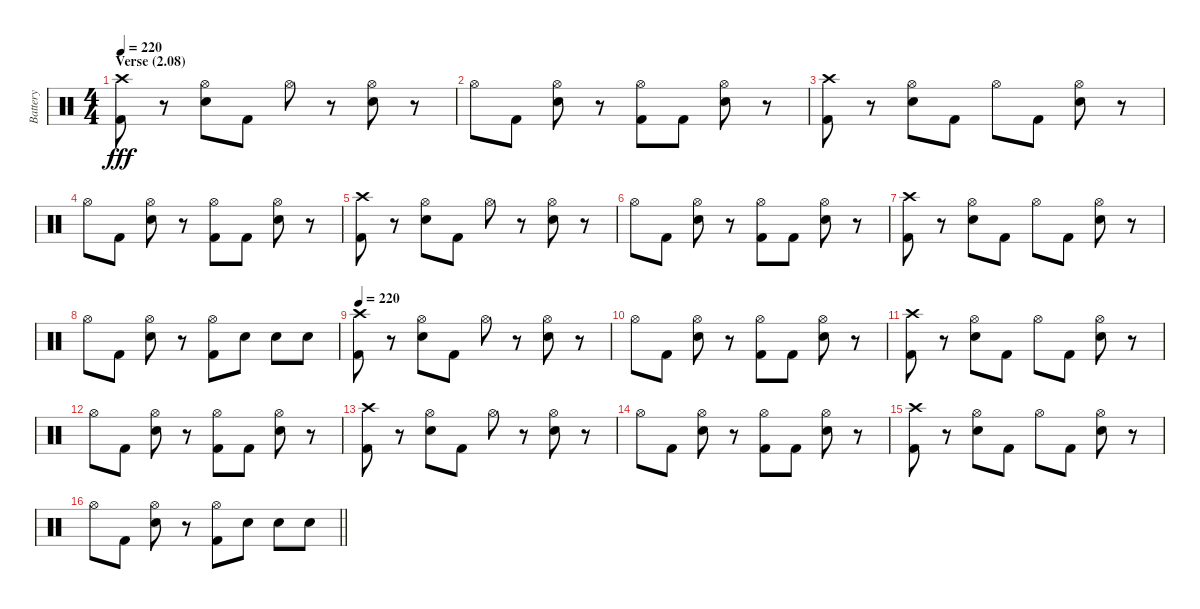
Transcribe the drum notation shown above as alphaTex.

\track ("Battery" "Battery") {instrument percussion}
\staff {score}
\articulation defaults
\ts (4 4)
\section ("" "Verse (2.08)")
\tempo 220
\clef neutral
\ks c
("Crash high (hit)" "Kick (hit) 2").8{dy fff} r.8 ("Hi-Hat (open)" "Electric Snare (hit)").8 "Kick (hit) 2".8 "Hi-Hat (open)".8 r.8 ("Hi-Hat (open)" "Electric Snare (hit)").8 r.8 |
"Hi-Hat (open)".8 "Kick (hit) 2".8 ("Hi-Hat (open)" "Electric Snare (hit)").8 r.8 ("Hi-Hat (open)" "Kick (hit) 2").8 "Kick (hit) 2".8 ("Hi-Hat (open)" "Electric Snare (hit)").8 r.8 |
("Crash high (hit)" "Kick (hit) 2").8 r.8 ("Hi-Hat (open)" "Electric Snare (hit)").8 "Kick (hit) 2".8 "Hi-Hat (open)".8 "Kick (hit) 2".8 ("Hi-Hat (open)" "Electric Snare (hit)").8 r.8 |
"Hi-Hat (open)".8 "Kick (hit) 2".8 ("Hi-Hat (open)" "Electric Snare (hit)").8 r.8 ("Hi-Hat (open)" "Kick (hit) 2").8 "Kick (hit) 2".8 ("Hi-Hat (open)" "Electric Snare (hit)").8 r.8 |
("Crash high (hit)" "Kick (hit) 2").8 r.8 ("Hi-Hat (open)" "Electric Snare (hit)").8 "Kick (hit) 2".8 "Hi-Hat (open)".8 r.8 ("Hi-Hat (open)" "Electric Snare (hit)").8 r.8 |
"Hi-Hat (open)".8 "Kick (hit) 2".8 ("Hi-Hat (open)" "Electric Snare (hit)").8 r.8 ("Hi-Hat (open)" "Kick (hit) 2").8 "Kick (hit) 2".8 ("Hi-Hat (open)" "Electric Snare (hit)").8 r.8 |
("Crash high (hit)" "Kick (hit) 2").8 r.8 ("Hi-Hat (open)" "Electric Snare (hit)").8 "Kick (hit) 2".8 "Hi-Hat (open)".8 "Kick (hit) 2".8 ("Hi-Hat (open)" "Electric Snare (hit)").8 r.8 |
"Hi-Hat (open)".8 "Kick (hit) 2".8 ("Hi-Hat (open)" "Electric Snare (hit)").8 r.8 ("Hi-Hat (open)" "Kick (hit) 2").8 "Electric Snare (hit)".8 "Electric Snare (hit)".8 "Electric Snare (hit)".8 |
\tempo 220
("Crash high (hit)" "Kick (hit) 2").8 r.8 ("Hi-Hat (open)" "Electric Snare (hit)").8 "Kick (hit) 2".8 "Hi-Hat (open)".8 r.8 ("Hi-Hat (open)" "Electric Snare (hit)").8 r.8 |
"Hi-Hat (open)".8 "Kick (hit) 2".8 ("Hi-Hat (open)" "Electric Snare (hit)").8 r.8 ("Hi-Hat (open)" "Kick (hit) 2").8 "Kick (hit) 2".8 ("Hi-Hat (open)" "Electric Snare (hit)").8 r.8 |
("Crash high (hit)" "Kick (hit) 2").8 r.8 ("Hi-Hat (open)" "Electric Snare (hit)").8 "Kick (hit) 2".8 "Hi-Hat (open)".8 "Kick (hit) 2".8 ("Hi-Hat (open)" "Electric Snare (hit)").8 r.8 |
"Hi-Hat (open)".8 "Kick (hit) 2".8 ("Hi-Hat (open)" "Electric Snare (hit)").8 r.8 ("Hi-Hat (open)" "Kick (hit) 2").8 "Kick (hit) 2".8 ("Hi-Hat (open)" "Electric Snare (hit)").8 r.8 |
("Crash high (hit)" "Kick (hit) 2").8 r.8 ("Hi-Hat (open)" "Electric Snare (hit)").8 "Kick (hit) 2".8 "Hi-Hat (open)".8 r.8 ("Hi-Hat (open)" "Electric Snare (hit)").8 r.8 |
"Hi-Hat (open)".8 "Kick (hit) 2".8 ("Hi-Hat (open)" "Electric Snare (hit)").8 r.8 ("Hi-Hat (open)" "Kick (hit) 2").8 "Kick (hit) 2".8 ("Hi-Hat (open)" "Electric Snare (hit)").8 r.8 |
("Crash high (hit)" "Kick (hit) 2").8 r.8 ("Hi-Hat (open)" "Electric Snare (hit)").8 "Kick (hit) 2".8 "Hi-Hat (open)".8 "Kick (hit) 2".8 ("Hi-Hat (open)" "Electric Snare (hit)").8 r.8 |
\barLineRight lightlight "Hi-Hat (open)".8 "Kick (hit) 2".8
("Hi-Hat (open)" "Electric Snare (hit)").8 r.8 ("Hi-Hat (open)" "Kick (hit) 2").8 "Electric Snare (hit)".8 "Electric Snare (hit)".8 "Electric Snare (hit)".8
